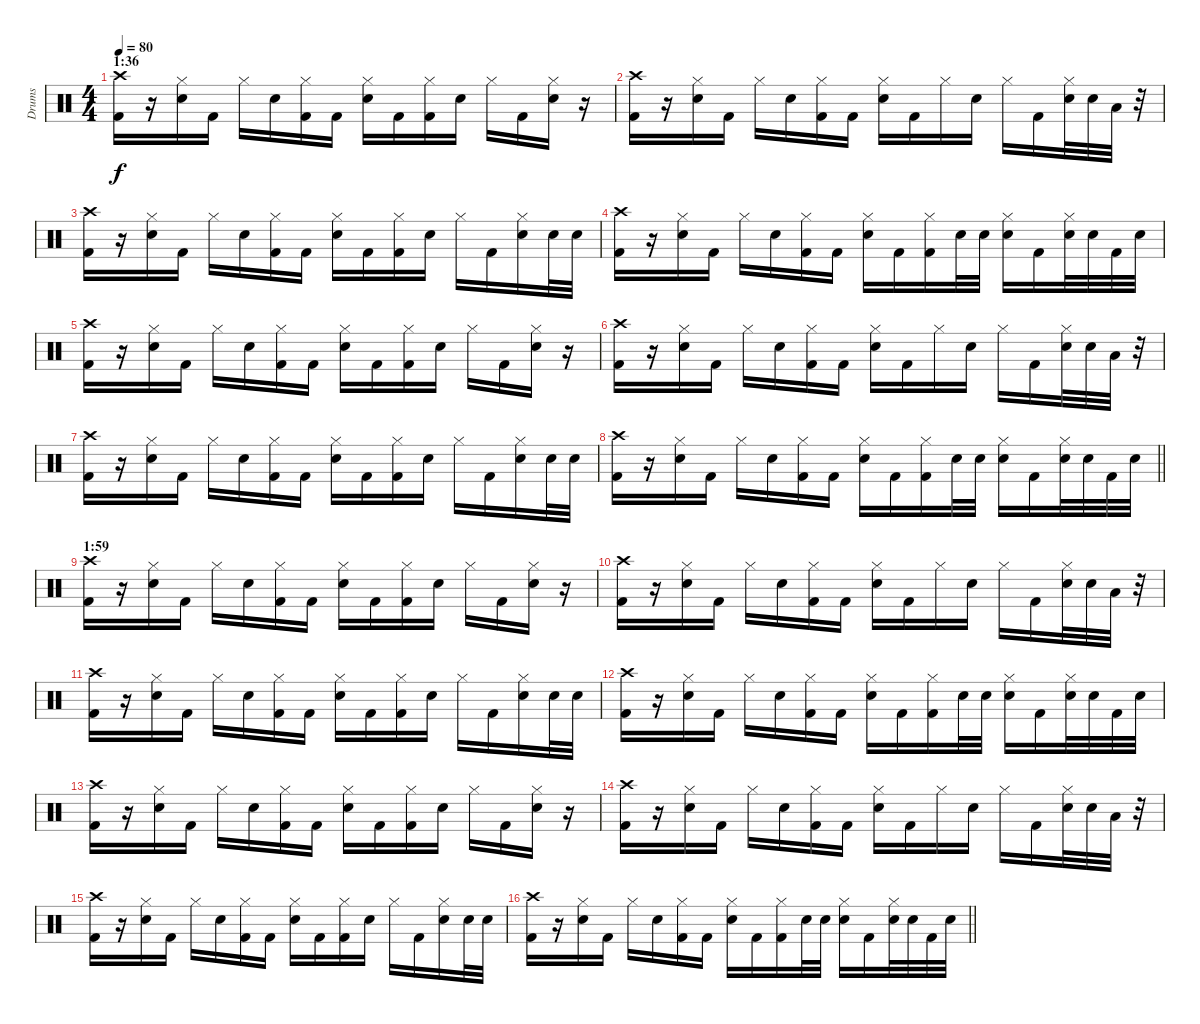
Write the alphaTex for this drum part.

\track ("Drums" "Drums") {instrument percussion}
\staff {score}
\articulation defaults
\ts (4 4)
\section ("" "1:36")
\tempo 80
\clef neutral
\ks c
("Crash high (hit)" "Kick (hit) 2").16{dy f volume 11} r.16 ("Hi-Hat (closed)" "Electric Snare (hit)").16 "Kick (hit) 2".16 "Hi-Hat (closed)".16 "Electric Snare (hit)".16 ("Hi-Hat (closed)" "Kick (hit) 2").16 "Kick (hit) 2".16 ("Hi-Hat (closed)" "Electric Snare (hit)").16 "Kick (hit) 2".16 ("Hi-Hat (closed)" "Kick (hit) 2").16 "Electric Snare (hit)".16 "Hi-Hat (closed)".16 "Kick (hit) 2".16 ("Hi-Hat (closed)" "Electric Snare (hit)").16 r.16 |
("Crash high (hit)" "Kick (hit) 2").16 r.16 ("Hi-Hat (closed)" "Electric Snare (hit)").16 "Kick (hit) 2".16 "Hi-Hat (closed)".16 "Electric Snare (hit)".16 ("Hi-Hat (closed)" "Kick (hit) 2").16 "Kick (hit) 2".16 ("Hi-Hat (closed)" "Electric Snare (hit)").16 "Kick (hit) 2".16 "Hi-Hat (closed)".16 "Electric Snare (hit)".16 "Hi-Hat (closed)".16 "Kick (hit) 2".16 ("Hi-Hat (closed)" "Electric Snare (hit)").32 "Electric Snare (hit)".32 "Low Tom (hit)".32 r.32 |
("Crash high (hit)" "Kick (hit) 2").16 r.16 ("Hi-Hat (closed)" "Electric Snare (hit)").16 "Kick (hit) 2".16 "Hi-Hat (closed)".16 "Electric Snare (hit)".16 ("Hi-Hat (closed)" "Kick (hit) 2").16 "Kick (hit) 2".16 ("Hi-Hat (closed)" "Electric Snare (hit)").16 "Kick (hit) 2".16 ("Hi-Hat (closed)" "Kick (hit) 2").16 "Electric Snare (hit)".16 "Hi-Hat (closed)".16 "Kick (hit) 2".16 ("Hi-Hat (closed)" "Electric Snare (hit)").16 "Electric Snare (hit)".32 "Electric Snare (hit)".32 |
("Crash high (hit)" "Kick (hit) 2").16 r.16 ("Hi-Hat (closed)" "Electric Snare (hit)").16 "Kick (hit) 2".16 "Hi-Hat (closed)".16 "Electric Snare (hit)".16 ("Hi-Hat (closed)" "Kick (hit) 2").16 "Kick (hit) 2".16 ("Hi-Hat (closed)" "Electric Snare (hit)").16 "Kick (hit) 2".16 ("Hi-Hat (closed)" "Kick (hit) 2").16 "Electric Snare (hit)".32 "Electric Snare (hit)".32 ("Hi-Hat (closed)" "Electric Snare (hit)").16 "Kick (hit) 2".16 ("Hi-Hat (closed)" "Electric Snare (hit)").32 "Electric Snare (hit)".32 "Kick (hit) 2".32 "Electric Snare (hit)".32 |
("Crash high (hit)" "Kick (hit) 2").16 r.16 ("Hi-Hat (closed)" "Electric Snare (hit)").16 "Kick (hit) 2".16 "Hi-Hat (closed)".16 "Electric Snare (hit)".16 ("Hi-Hat (closed)" "Kick (hit) 2").16 "Kick (hit) 2".16 ("Hi-Hat (closed)" "Electric Snare (hit)").16 "Kick (hit) 2".16 ("Hi-Hat (closed)" "Kick (hit) 2").16 "Electric Snare (hit)".16 "Hi-Hat (closed)".16 "Kick (hit) 2".16 ("Hi-Hat (closed)" "Electric Snare (hit)").16 r.16 |
("Crash high (hit)" "Kick (hit) 2").16 r.16 ("Hi-Hat (closed)" "Electric Snare (hit)").16 "Kick (hit) 2".16 "Hi-Hat (closed)".16 "Electric Snare (hit)".16 ("Hi-Hat (closed)" "Kick (hit) 2").16 "Kick (hit) 2".16 ("Hi-Hat (closed)" "Electric Snare (hit)").16 "Kick (hit) 2".16 "Hi-Hat (closed)".16 "Electric Snare (hit)".16 "Hi-Hat (closed)".16 "Kick (hit) 2".16 ("Hi-Hat (closed)" "Electric Snare (hit)").32 "Electric Snare (hit)".32 "Low Tom (hit)".32 r.32 |
("Crash high (hit)" "Kick (hit) 2").16 r.16 ("Hi-Hat (closed)" "Electric Snare (hit)").16 "Kick (hit) 2".16 "Hi-Hat (closed)".16 "Electric Snare (hit)".16 ("Hi-Hat (closed)" "Kick (hit) 2").16 "Kick (hit) 2".16 ("Hi-Hat (closed)" "Electric Snare (hit)").16 "Kick (hit) 2".16 ("Hi-Hat (closed)" "Kick (hit) 2").16 "Electric Snare (hit)".16 "Hi-Hat (closed)".16 "Kick (hit) 2".16 ("Hi-Hat (closed)" "Electric Snare (hit)").16 "Electric Snare (hit)".32 "Electric Snare (hit)".32 |
\barLineRight lightlight
("Crash high (hit)" "Kick (hit) 2").16 r.16 ("Hi-Hat (closed)" "Electric Snare (hit)").16 "Kick (hit) 2".16 "Hi-Hat (closed)".16 "Electric Snare (hit)".16 ("Hi-Hat (closed)" "Kick (hit) 2").16 "Kick (hit) 2".16 ("Hi-Hat (closed)" "Electric Snare (hit)").16 "Kick (hit) 2".16 ("Hi-Hat (closed)" "Kick (hit) 2").16 "Electric Snare (hit)".32 "Electric Snare (hit)".32 ("Hi-Hat (closed)" "Electric Snare (hit)").16 "Kick (hit) 2".16 ("Hi-Hat (closed)" "Electric Snare (hit)").32 "Electric Snare (hit)".32 "Kick (hit) 2".32 "Electric Snare (hit)".32 |
\section ("" "1:59")
("Crash high (hit)" "Kick (hit) 2").16 r.16 ("Hi-Hat (closed)" "Electric Snare (hit)").16 "Kick (hit) 2".16 "Hi-Hat (closed)".16 "Electric Snare (hit)".16 ("Hi-Hat (closed)" "Kick (hit) 2").16 "Kick (hit) 2".16 ("Hi-Hat (closed)" "Electric Snare (hit)").16 "Kick (hit) 2".16 ("Hi-Hat (closed)" "Kick (hit) 2").16 "Electric Snare (hit)".16 "Hi-Hat (closed)".16 "Kick (hit) 2".16 ("Hi-Hat (closed)" "Electric Snare (hit)").16 r.16 |
("Crash high (hit)" "Kick (hit) 2").16 r.16 ("Hi-Hat (closed)" "Electric Snare (hit)").16 "Kick (hit) 2".16 "Hi-Hat (closed)".16 "Electric Snare (hit)".16 ("Hi-Hat (closed)" "Kick (hit) 2").16 "Kick (hit) 2".16 ("Hi-Hat (closed)" "Electric Snare (hit)").16 "Kick (hit) 2".16 "Hi-Hat (closed)".16 "Electric Snare (hit)".16 "Hi-Hat (closed)".16 "Kick (hit) 2".16 ("Hi-Hat (closed)" "Electric Snare (hit)").32 "Electric Snare (hit)".32 "Low Tom (hit)".32 r.32 |
("Crash high (hit)" "Kick (hit) 2").16 r.16 ("Hi-Hat (closed)" "Electric Snare (hit)").16 "Kick (hit) 2".16 "Hi-Hat (closed)".16 "Electric Snare (hit)".16 ("Hi-Hat (closed)" "Kick (hit) 2").16 "Kick (hit) 2".16 ("Hi-Hat (closed)" "Electric Snare (hit)").16 "Kick (hit) 2".16 ("Hi-Hat (closed)" "Kick (hit) 2").16 "Electric Snare (hit)".16 "Hi-Hat (closed)".16 "Kick (hit) 2".16 ("Hi-Hat (closed)" "Electric Snare (hit)").16 "Electric Snare (hit)".32 "Electric Snare (hit)".32 |
("Crash high (hit)" "Kick (hit) 2").16 r.16 ("Hi-Hat (closed)" "Electric Snare (hit)").16 "Kick (hit) 2".16 "Hi-Hat (closed)".16 "Electric Snare (hit)".16 ("Hi-Hat (closed)" "Kick (hit) 2").16 "Kick (hit) 2".16 ("Hi-Hat (closed)" "Electric Snare (hit)").16 "Kick (hit) 2".16 ("Hi-Hat (closed)" "Kick (hit) 2").16 "Electric Snare (hit)".32 "Electric Snare (hit)".32 ("Hi-Hat (closed)" "Electric Snare (hit)").16 "Kick (hit) 2".16 ("Hi-Hat (closed)" "Electric Snare (hit)").32 "Electric Snare (hit)".32 "Kick (hit) 2".32 "Electric Snare (hit)".32 |
("Crash high (hit)" "Kick (hit) 2").16 r.16 ("Hi-Hat (closed)" "Electric Snare (hit)").16 "Kick (hit) 2".16 "Hi-Hat (closed)".16 "Electric Snare (hit)".16 ("Hi-Hat (closed)" "Kick (hit) 2").16 "Kick (hit) 2".16 ("Hi-Hat (closed)" "Electric Snare (hit)").16 "Kick (hit) 2".16 ("Hi-Hat (closed)" "Kick (hit) 2").16 "Electric Snare (hit)".16 "Hi-Hat (closed)".16 "Kick (hit) 2".16 ("Hi-Hat (closed)" "Electric Snare (hit)").16 r.16 |
("Crash high (hit)" "Kick (hit) 2").16 r.16 ("Hi-Hat (closed)" "Electric Snare (hit)").16 "Kick (hit) 2".16 "Hi-Hat (closed)".16 "Electric Snare (hit)".16 ("Hi-Hat (closed)" "Kick (hit) 2").16 "Kick (hit) 2".16 ("Hi-Hat (closed)" "Electric Snare (hit)").16 "Kick (hit) 2".16 "Hi-Hat (closed)".16 "Electric Snare (hit)".16 "Hi-Hat (closed)".16 "Kick (hit) 2".16 ("Hi-Hat (closed)" "Electric Snare (hit)").32 "Electric Snare (hit)".32 "Low Tom (hit)".32 r.32 |
("Crash high (hit)" "Kick (hit) 2").16 r.16 ("Hi-Hat (closed)" "Electric Snare (hit)").16 "Kick (hit) 2".16 "Hi-Hat (closed)".16 "Electric Snare (hit)".16 ("Hi-Hat (closed)" "Kick (hit) 2").16 "Kick (hit) 2".16 ("Hi-Hat (closed)" "Electric Snare (hit)").16 "Kick (hit) 2".16 ("Hi-Hat (closed)" "Kick (hit) 2").16 "Electric Snare (hit)".16 "Hi-Hat (closed)".16 "Kick (hit) 2".16 ("Hi-Hat (closed)" "Electric Snare (hit)").16 "Electric Snare (hit)".32 "Electric Snare (hit)".32 |
\barLineRight lightlight
("Crash high (hit)" "Kick (hit) 2").16 r.16 ("Hi-Hat (closed)" "Electric Snare (hit)").16 "Kick (hit) 2".16 "Hi-Hat (closed)".16 "Electric Snare (hit)".16 ("Hi-Hat (closed)" "Kick (hit) 2").16 "Kick (hit) 2".16 ("Hi-Hat (closed)" "Electric Snare (hit)").16 "Kick (hit) 2".16 ("Hi-Hat (closed)" "Kick (hit) 2").16 "Electric Snare (hit)".32 "Electric Snare (hit)".32 ("Hi-Hat (closed)" "Electric Snare (hit)").16 "Kick (hit) 2".16 ("Hi-Hat (closed)" "Electric Snare (hit)").32 "Electric Snare (hit)".32 "Kick (hit) 2".32 "Electric Snare (hit)".32
